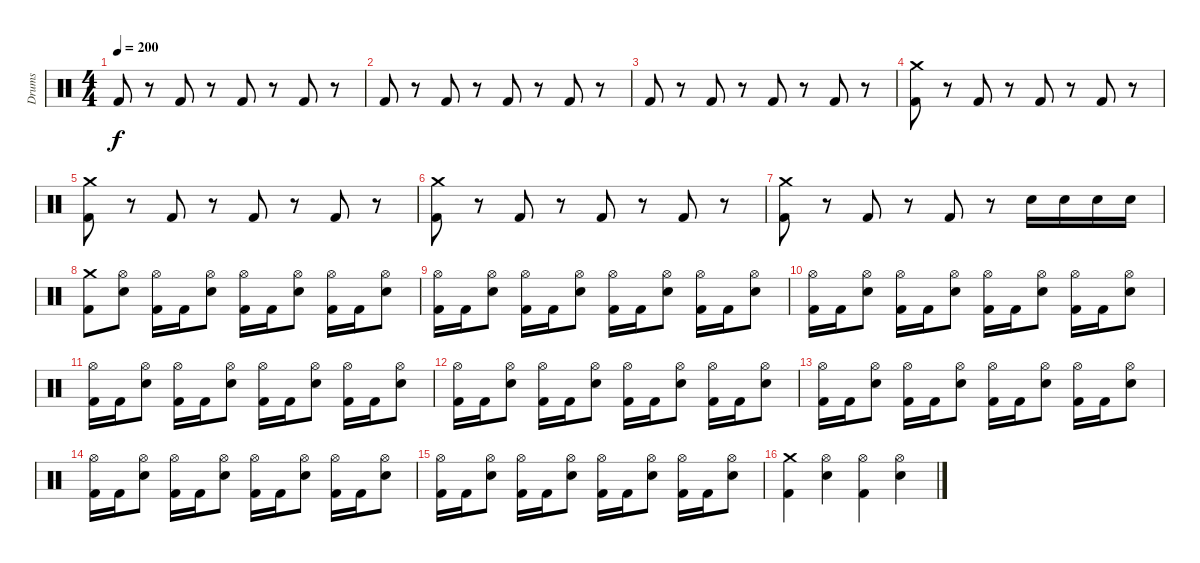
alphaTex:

\track ("Drums" "Drums") {instrument percussion}
\staff {score}
\articulation defaults
\ts (4 4)
\tempo 200
\clef neutral
\ks c "Kick (hit) 2".8{dy f}
r.8 "Kick (hit) 2".8 r.8 "Kick (hit) 2".8 r.8 "Kick (hit) 2".8 r.8 |
"Kick (hit) 2".8 r.8 "Kick (hit) 2".8 r.8 "Kick (hit) 2".8 r.8 "Kick (hit) 2".8 r.8 |
"Kick (hit) 2".8 r.8 "Kick (hit) 2".8 r.8 "Kick (hit) 2".8 r.8 "Kick (hit) 2".8 r.8 |
("Crash medium (hit)" "Kick (hit) 2").8 r.8 "Kick (hit) 2".8 r.8 "Kick (hit) 2".8 r.8 "Kick (hit) 2".8 r.8 |
("Crash medium (hit)" "Kick (hit) 2").8 r.8 "Kick (hit) 2".8 r.8 "Kick (hit) 2".8 r.8 "Kick (hit) 2".8 r.8 |
("Crash medium (hit)" "Kick (hit) 2").8 r.8 "Kick (hit) 2".8 r.8 "Kick (hit) 2".8 r.8 "Kick (hit) 2".8 r.8 |
("Crash medium (hit)" "Kick (hit) 2").8 r.8 "Kick (hit) 2".8 r.8 "Kick (hit) 2".8 r.8 "Electric Snare (hit)".16 "Electric Snare (hit)".16 "Electric Snare (hit)".16 "Electric Snare (hit)".16 |
("Crash medium (hit)" "Kick (hit) 2").8 ("Hi-Hat (open)" "Electric Snare (hit)").8 ("Hi-Hat (open)" "Kick (hit) 2").16 "Kick (hit) 2".16 ("Hi-Hat (open)" "Electric Snare (hit)").8 ("Hi-Hat (open)" "Kick (hit) 2").16 "Kick (hit) 2".16 ("Hi-Hat (open)" "Electric Snare (hit)").8 ("Hi-Hat (open)" "Kick (hit) 2").16 "Kick (hit) 2".16 ("Hi-Hat (open)" "Electric Snare (hit)").8 |
("Hi-Hat (open)" "Kick (hit) 2").16 "Kick (hit) 2".16 ("Hi-Hat (open)" "Electric Snare (hit)").8 ("Hi-Hat (open)" "Kick (hit) 2").16 "Kick (hit) 2".16 ("Hi-Hat (open)" "Electric Snare (hit)").8 ("Hi-Hat (open)" "Kick (hit) 2").16 "Kick (hit) 2".16 ("Hi-Hat (open)" "Electric Snare (hit)").8 ("Hi-Hat (open)" "Kick (hit) 2").16 "Kick (hit) 2".16 ("Hi-Hat (open)" "Electric Snare (hit)").8 |
("Hi-Hat (open)" "Kick (hit) 2").16 "Kick (hit) 2".16 ("Hi-Hat (open)" "Electric Snare (hit)").8 ("Hi-Hat (open)" "Kick (hit) 2").16 "Kick (hit) 2".16 ("Hi-Hat (open)" "Electric Snare (hit)").8 ("Hi-Hat (open)" "Kick (hit) 2").16 "Kick (hit) 2".16 ("Hi-Hat (open)" "Electric Snare (hit)").8 ("Hi-Hat (open)" "Kick (hit) 2").16 "Kick (hit) 2".16 ("Hi-Hat (open)" "Electric Snare (hit)").8 |
("Hi-Hat (open)" "Kick (hit) 2").16 "Kick (hit) 2".16 ("Hi-Hat (open)" "Electric Snare (hit)").8 ("Hi-Hat (open)" "Kick (hit) 2").16 "Kick (hit) 2".16 ("Hi-Hat (open)" "Electric Snare (hit)").8 ("Hi-Hat (open)" "Kick (hit) 2").16 "Kick (hit) 2".16 ("Hi-Hat (open)" "Electric Snare (hit)").8 ("Hi-Hat (open)" "Kick (hit) 2").16 "Kick (hit) 2".16 ("Hi-Hat (open)" "Electric Snare (hit)").8 |
("Hi-Hat (open)" "Kick (hit) 2").16 "Kick (hit) 2".16 ("Hi-Hat (open)" "Electric Snare (hit)").8 ("Hi-Hat (open)" "Kick (hit) 2").16 "Kick (hit) 2".16 ("Hi-Hat (open)" "Electric Snare (hit)").8 ("Hi-Hat (open)" "Kick (hit) 2").16 "Kick (hit) 2".16 ("Hi-Hat (open)" "Electric Snare (hit)").8 ("Hi-Hat (open)" "Kick (hit) 2").16 "Kick (hit) 2".16 ("Hi-Hat (open)" "Electric Snare (hit)").8 |
("Hi-Hat (open)" "Kick (hit) 2").16 "Kick (hit) 2".16 ("Hi-Hat (open)" "Electric Snare (hit)").8 ("Hi-Hat (open)" "Kick (hit) 2").16 "Kick (hit) 2".16 ("Hi-Hat (open)" "Electric Snare (hit)").8 ("Hi-Hat (open)" "Kick (hit) 2").16 "Kick (hit) 2".16 ("Hi-Hat (open)" "Electric Snare (hit)").8 ("Hi-Hat (open)" "Kick (hit) 2").16 "Kick (hit) 2".16 ("Hi-Hat (open)" "Electric Snare (hit)").8 |
("Hi-Hat (open)" "Kick (hit) 2").16 "Kick (hit) 2".16 ("Hi-Hat (open)" "Electric Snare (hit)").8 ("Hi-Hat (open)" "Kick (hit) 2").16 "Kick (hit) 2".16 ("Hi-Hat (open)" "Electric Snare (hit)").8 ("Hi-Hat (open)" "Kick (hit) 2").16 "Kick (hit) 2".16 ("Hi-Hat (open)" "Electric Snare (hit)").8 ("Hi-Hat (open)" "Kick (hit) 2").16 "Kick (hit) 2".16 ("Hi-Hat (open)" "Electric Snare (hit)").8 |
("Hi-Hat (open)" "Kick (hit) 2").16 "Kick (hit) 2".16 ("Hi-Hat (open)" "Electric Snare (hit)").8 ("Hi-Hat (open)" "Kick (hit) 2").16 "Kick (hit) 2".16 ("Hi-Hat (open)" "Electric Snare (hit)").8 ("Hi-Hat (open)" "Kick (hit) 2").16 "Kick (hit) 2".16 ("Hi-Hat (open)" "Electric Snare (hit)").8 ("Hi-Hat (open)" "Kick (hit) 2").16 "Kick (hit) 2".16 ("Hi-Hat (open)" "Electric Snare (hit)").8 |
("Crash medium (hit)" "Kick (hit) 2").4 ("Hi-Hat (open)" "Electric Snare (hit)").4 ("Hi-Hat (open)" "Kick (hit) 2").4 ("Hi-Hat (open)" "Electric Snare (hit)").4
